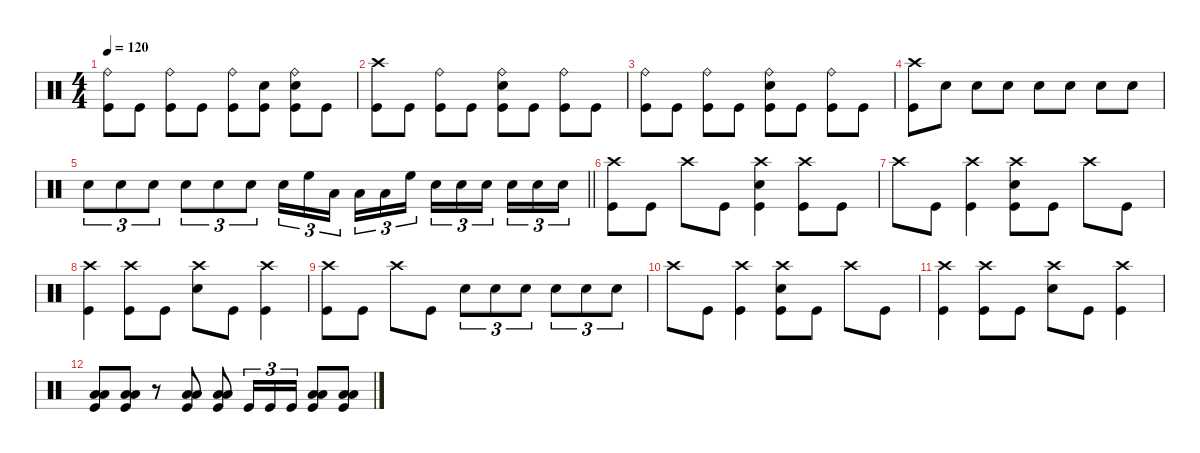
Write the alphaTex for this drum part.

\defaultSystemsLayout 4
\hideDynamics
\bracketExtendMode nobrackets
\singleTrackTrackNamePolicy hidden
\multiTrackTrackNamePolicy hidden
\firstSystemTrackNameMode fullname
\firstSystemTrackNameOrientation horizontal
\otherSystemsTrackNameOrientation horizontal
\track ("Drums" "drm.") {instrument percussion}
\staff {score}
\articulation defaults
\ts (4 4)
\tempo 120
\clef neutral
\ks c
("Kick (hit)" "Ride (bell)").8{dy mf beam Down} "Kick (hit)".8{beam Down} ("Kick (hit)" "Ride (bell)").8{beam Down} "Kick (hit)".8{beam Down} ("Kick (hit)" "Ride (bell)").8{beam Down} ("Kick (hit)" "Snare (hit) 2").8{beam Down} ("Kick (hit)" "Snare (hit) 2" "Ride (bell)").8{beam Down} "Kick (hit)".8{beam Down} |
("Crash high (hit)" "Kick (hit)").8{beam Down} "Kick (hit)".8{beam Down} ("Ride (bell)" "Kick (hit)").8{beam Down} "Kick (hit)".8{beam Down} ("Snare (hit) 2" "Ride (bell)" "Kick (hit)").8{beam Down} "Kick (hit)".8{beam Down} ("Ride (bell)" "Kick (hit)").8{beam Down} "Kick (hit)".8{beam Down} |
("Kick (hit)" "Ride (bell)").8{beam Down} "Kick (hit)".8{beam Down} ("Kick (hit)" "Ride (bell)").8{beam Down} "Kick (hit)".8{beam Down} ("Kick (hit)" "Snare (hit) 2" "Ride (bell)").8{beam Down} "Kick (hit)".8{beam Down} ("Kick (hit)" "Ride (bell)").8{beam Down} "Kick (hit)".8{beam Down} |
("Kick (hit)" "Crash high (hit)").8{beam Down} "Snare (hit) 2".8{beam Down} "Snare (hit) 2".8{beam Down} "Snare (hit) 2".8{beam Down} "Snare (hit) 2".8{beam Down} "Snare (hit) 2".8{beam Down} "Snare (hit) 2".8{beam Down} "Snare (hit) 2".8{beam Down} |
\barLineRight lightlight "Snare (hit) 2".8{tu (3 2) beam Down} "Snare (hit) 2".8{tu (3 2) beam Down} "Snare (hit) 2".8{tu (3 2) beam Down} "Snare (hit) 2".8{tu (3 2) beam Down} "Snare (hit) 2".8{tu (3 2) beam Down} "Snare (hit) 2".8{tu (3 2) beam Down} "Snare (hit) 2".16{tu (3 2) beam Down} "High Floor Tom (hit)".16{tu (3 2) beam Down} "Low Tom (hit)".16{tu (3 2) beam Down} "Low Floor Tom (hit)".16{tu (3 2) beam Down} "Low Tom (hit)".16{tu (3 2) beam Down} "High Floor Tom (hit)".16{tu (3 2) beam Down} "Snare (hit) 2".16{tu (3 2) beam Down} "Snare (hit) 2".16{tu (3 2) beam Down} "Snare (hit) 2".16{tu (3 2) beam Down} "Snare (hit) 2".16{tu (3 2) beam Down} "Snare (hit) 2".16{tu (3 2) beam Down} "Snare (hit) 2".16{tu (3 2) beam Down}
|
("Crash high (hit)" "Kick (hit)").8{beam Down} "Kick (hit)".8{beam Down} "Crash high (hit)".8{beam Down} "Kick (hit)".8{beam Down} ("Kick (hit)" "Snare (hit) 2" "Crash high (hit)").4{beam Down} ("Crash high (hit)" "Kick (hit)").8{beam Down} "Kick (hit)".8{beam Down} |
"Crash high (hit)".8{beam Down} "Kick (hit)".8{beam Down} ("Kick (hit)" "Crash high (hit)").4{beam Down} ("Kick (hit)" "Snare (hit) 2" "Crash high (hit)").8{beam Down} "Kick (hit)".8{beam Down} "Crash high (hit)".8{beam Down} "Kick (hit)".8{beam Down} |
("Kick (hit)" "Crash high (hit)").4{beam Down} ("Kick (hit)" "Crash high (hit)").8{beam Down} "Kick (hit)".8{beam Down} ("Snare (hit) 2" "Crash high (hit)").8{beam Down} "Kick (hit)".8{beam Down} ("Kick (hit)" "Crash high (hit)").4{beam Down} |
("Kick (hit)" "Crash high (hit)").8{beam Down} "Kick (hit)".8{beam Down} "Crash high (hit)".8{beam Down} "Kick (hit)".8{beam Down} "Snare (hit) 2".8{tu (3 2) beam Down} "Snare (hit) 2".8{tu (3 2) beam Down} "Snare (hit) 2".8{tu (3 2) beam Down} "Snare (hit) 2".8{tu (3 2) beam Down} "Snare (hit) 2".8{tu (3 2) beam Down} "Snare (hit) 2".8{tu (3 2) beam Down} |
"Crash high (hit)".8{beam Down} "Kick (hit)".8{beam Down} ("Crash high (hit)" "Kick (hit)").4{beam Down} ("Snare (hit) 2" "Crash high (hit)" "Kick (hit)").8{beam Down} "Kick (hit)".8{beam Down} "Crash high (hit)".8{beam Down} "Kick (hit)".8{beam Down} |
("Crash high (hit)" "Kick (hit)").4{beam Down} ("Crash high (hit)" "Kick (hit)").8{beam Down} "Kick (hit)".8{beam Down} ("Snare (hit) 2" "Crash high (hit)").8{beam Down} "Kick (hit)".8{beam Down} ("Crash high (hit)" "Kick (hit)").4{beam Down} |
("Low Floor Tom (hit)" "Low Tom (hit)" "Kick (hit)").8{beam Up} ("Low Floor Tom (hit)" "Low Tom (hit)" "Kick (hit)").8{beam Up} r.8{beam Up} ("Low Floor Tom (hit)" "Low Tom (hit)" "Kick (hit)").8{beam Up} ("Low Floor Tom (hit)" "Low Tom (hit)" "Kick (hit)").8{beam Up} "Kick (hit)".16{tu (3 2) beam Up} "Kick (hit)".16{tu (3 2) beam Up} "Kick (hit)".16{tu (3 2) beam Up} ("Low Floor Tom (hit)" "Low Tom (hit)" "Kick (hit)").8{beam Up} ("Low Floor Tom (hit)" "Low Tom (hit)" "Kick (hit)").8{beam Up}
